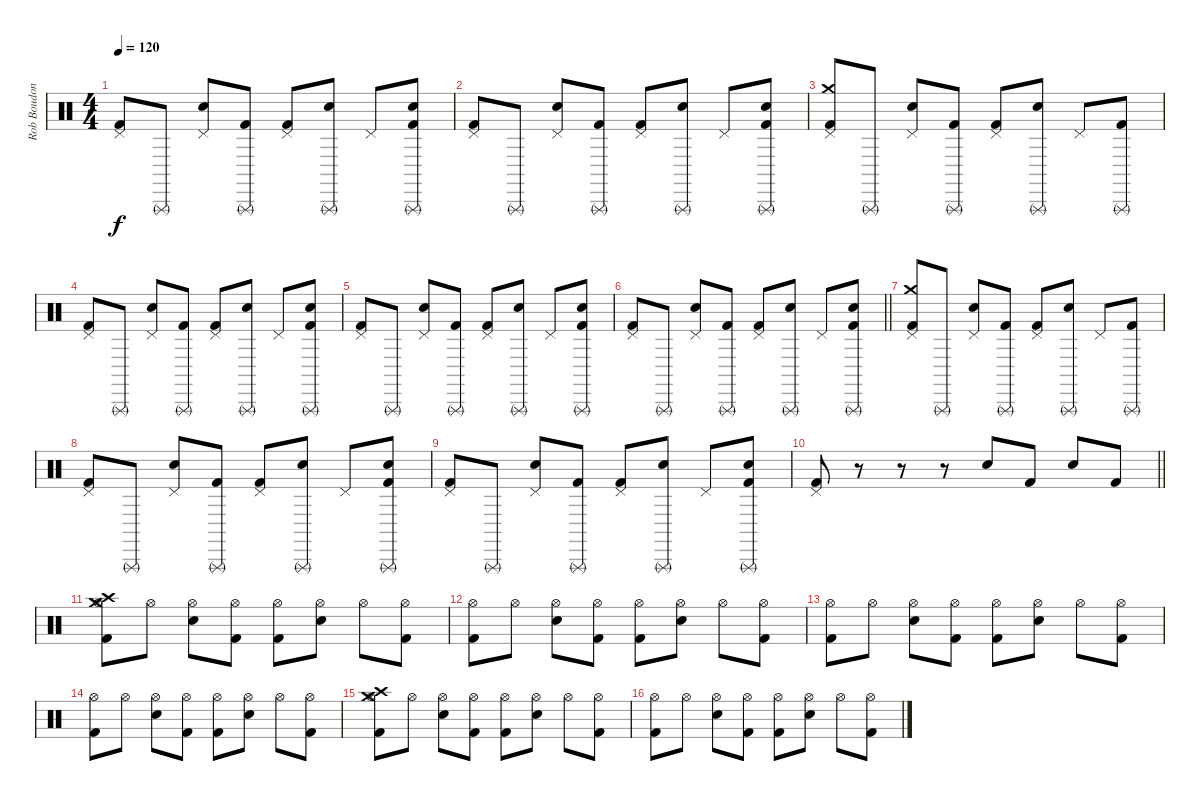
\track ("Rob Boudon [Drums]" "Rob Boudon") {instrument percussion}
\staff {score}
\articulation defaults
\ts (4 4)
\tempo 120
\clef neutral
\ks c
("Pedal Hi-Hat (hit)" "Kick (hit) 2").8{dy f} "Triangle (rnute)".8 ("Pedal Hi-Hat (hit)" "Snare (hit) 2").8 ("Triangle (rnute)" "Kick (hit) 2").8 ("Pedal Hi-Hat (hit)" "Kick (hit) 2").8 ("Triangle (rnute)" "Snare (hit) 2").8 "Pedal Hi-Hat (hit)".8 ("Triangle (rnute)" "Snare (hit) 2" "Kick (hit) 2").8 |
("Pedal Hi-Hat (hit)" "Kick (hit) 2").8 "Triangle (rnute)".8 ("Pedal Hi-Hat (hit)" "Snare (hit) 2").8 ("Triangle (rnute)" "Kick (hit) 2").8 ("Pedal Hi-Hat (hit)" "Kick (hit) 2").8 ("Triangle (rnute)" "Snare (hit) 2").8 "Pedal Hi-Hat (hit)".8 ("Triangle (rnute)" "Snare (hit) 2" "Kick (hit) 2").8 |
("Crash medium (hit)" "Pedal Hi-Hat (hit)" "Kick (hit) 2").8 "Triangle (rnute)".8 ("Pedal Hi-Hat (hit)" "Snare (hit) 2").8 ("Triangle (rnute)" "Kick (hit) 2").8 ("Pedal Hi-Hat (hit)" "Kick (hit) 2").8 ("Triangle (rnute)" "Snare (hit) 2").8 "Pedal Hi-Hat (hit)".8 ("Triangle (rnute)" "Kick (hit) 2").8 |
("Pedal Hi-Hat (hit)" "Kick (hit) 2").8 "Triangle (rnute)".8 ("Pedal Hi-Hat (hit)" "Snare (hit) 2").8 ("Triangle (rnute)" "Kick (hit) 2").8 ("Pedal Hi-Hat (hit)" "Kick (hit) 2").8 ("Triangle (rnute)" "Snare (hit) 2").8 "Pedal Hi-Hat (hit)".8 ("Triangle (rnute)" "Snare (hit) 2" "Kick (hit) 2").8 |
("Pedal Hi-Hat (hit)" "Kick (hit) 2").8 "Triangle (rnute)".8 ("Pedal Hi-Hat (hit)" "Snare (hit) 2").8 ("Triangle (rnute)" "Kick (hit) 2").8 ("Pedal Hi-Hat (hit)" "Kick (hit) 2").8 ("Triangle (rnute)" "Snare (hit) 2").8 "Pedal Hi-Hat (hit)".8 ("Triangle (rnute)" "Snare (hit) 2" "Kick (hit) 2").8 |
\barLineRight lightlight
("Pedal Hi-Hat (hit)" "Kick (hit) 2").8 "Triangle (rnute)".8 ("Pedal Hi-Hat (hit)" "Snare (hit) 2").8 ("Triangle (rnute)" "Kick (hit) 2").8 ("Pedal Hi-Hat (hit)" "Kick (hit) 2").8 ("Triangle (rnute)" "Snare (hit) 2").8 "Pedal Hi-Hat (hit)".8 ("Triangle (rnute)" "Snare (hit) 2" "Kick (hit) 2").8 |
("Crash medium (hit)" "Pedal Hi-Hat (hit)" "Kick (hit) 2").8 "Triangle (rnute)".8 ("Pedal Hi-Hat (hit)" "Snare (hit) 2").8 ("Triangle (rnute)" "Kick (hit) 2").8 ("Pedal Hi-Hat (hit)" "Kick (hit) 2").8 ("Triangle (rnute)" "Snare (hit) 2").8 "Pedal Hi-Hat (hit)".8 ("Triangle (rnute)" "Kick (hit) 2").8 |
("Pedal Hi-Hat (hit)" "Kick (hit) 2").8 "Triangle (rnute)".8 ("Pedal Hi-Hat (hit)" "Snare (hit) 2").8 ("Triangle (rnute)" "Kick (hit) 2").8 ("Pedal Hi-Hat (hit)" "Kick (hit) 2").8 ("Triangle (rnute)" "Snare (hit) 2").8 "Pedal Hi-Hat (hit)".8 ("Triangle (rnute)" "Snare (hit) 2" "Kick (hit) 2").8 |
("Pedal Hi-Hat (hit)" "Kick (hit) 2").8 "Triangle (rnute)".8 ("Pedal Hi-Hat (hit)" "Snare (hit) 2").8 ("Triangle (rnute)" "Kick (hit) 2").8 ("Pedal Hi-Hat (hit)" "Kick (hit) 2").8 ("Triangle (rnute)" "Snare (hit) 2").8 "Pedal Hi-Hat (hit)".8 ("Triangle (rnute)" "Snare (hit) 2" "Kick (hit) 2").8 |
\barLineRight lightlight
("Pedal Hi-Hat (hit)" "Kick (hit) 2").8 r.8 r.8 r.8 "Snare (hit) 2".8 "Kick (hit) 2".8 "Snare (hit) 2".8 "Kick (hit) 2".8 |
("Crash medium (hit)" "Crash high (hit)" "Hi-Hat (open)" "Kick (hit) 2").8 "Hi-Hat (open)".8 ("Hi-Hat (open)" "Snare (hit) 2").8 ("Hi-Hat (open)" "Kick (hit) 2").8 ("Hi-Hat (open)" "Kick (hit) 2").8 ("Hi-Hat (open)" "Snare (hit) 2").8 "Hi-Hat (open)".8 ("Hi-Hat (open)" "Kick (hit) 2").8 |
("Hi-Hat (open)" "Kick (hit) 2").8 "Hi-Hat (open)".8 ("Hi-Hat (open)" "Snare (hit) 2").8 ("Hi-Hat (open)" "Kick (hit) 2").8 ("Hi-Hat (open)" "Kick (hit) 2").8 ("Hi-Hat (open)" "Snare (hit) 2").8 "Hi-Hat (open)".8 ("Hi-Hat (open)" "Kick (hit) 2").8 |
("Hi-Hat (open)" "Kick (hit) 2").8 "Hi-Hat (open)".8 ("Hi-Hat (open)" "Snare (hit) 2").8 ("Hi-Hat (open)" "Kick (hit) 2").8 ("Hi-Hat (open)" "Kick (hit) 2").8 ("Hi-Hat (open)" "Snare (hit) 2").8 "Hi-Hat (open)".8 ("Hi-Hat (open)" "Kick (hit) 2").8 |
("Hi-Hat (open)" "Kick (hit) 2").8 "Hi-Hat (open)".8 ("Hi-Hat (open)" "Snare (hit) 2").8 ("Hi-Hat (open)" "Kick (hit) 2").8 ("Hi-Hat (open)" "Kick (hit) 2").8 ("Hi-Hat (open)" "Snare (hit) 2").8 "Hi-Hat (open)".8 ("Hi-Hat (open)" "Kick (hit) 2").8 |
("Crash medium (hit)" "Crash high (hit)" "Hi-Hat (open)" "Kick (hit) 2").8 "Hi-Hat (open)".8 ("Hi-Hat (open)" "Snare (hit) 2").8 ("Hi-Hat (open)" "Kick (hit) 2").8 ("Hi-Hat (open)" "Kick (hit) 2").8 ("Hi-Hat (open)" "Snare (hit) 2").8 "Hi-Hat (open)".8 ("Hi-Hat (open)" "Kick (hit) 2").8 |
("Hi-Hat (open)" "Kick (hit) 2").8 "Hi-Hat (open)".8 ("Hi-Hat (open)" "Snare (hit) 2").8 ("Hi-Hat (open)" "Kick (hit) 2").8 ("Hi-Hat (open)" "Kick (hit) 2").8 ("Hi-Hat (open)" "Snare (hit) 2").8 "Hi-Hat (open)".8 ("Hi-Hat (open)" "Kick (hit) 2").8
